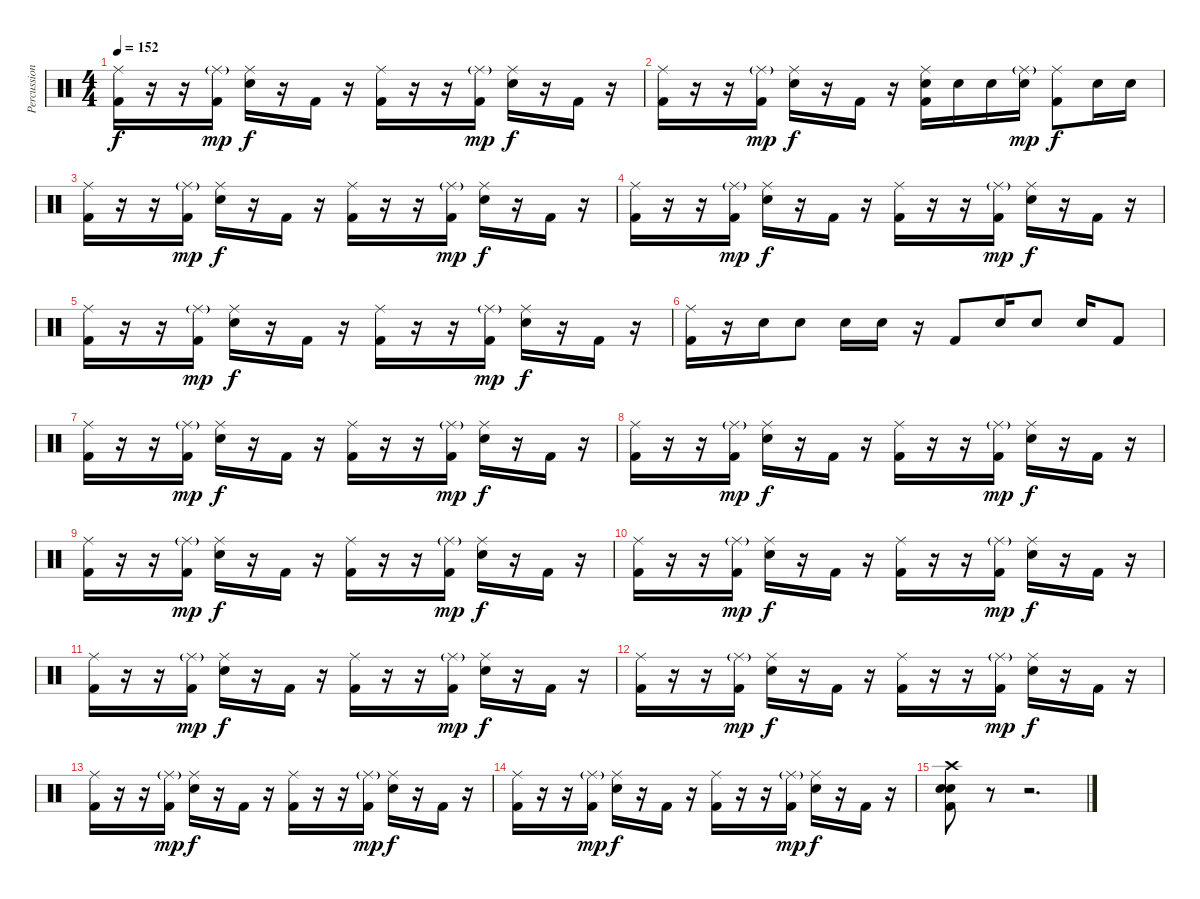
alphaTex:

\track ("Percussions" "Percussion") {instrument percussion}
\staff {score}
\articulation defaults
\ts (4 4)
\tempo 152
\clef neutral
\ks c
("Ride (middle)" "Kick (hit) 2").16{dy f} r.16 r.16 ("Ride (middle)"{g} "Kick (hit) 2").16{dy mp} ("Ride (middle)" "Snare (hit) 2").16{dy f} r.16 "Kick (hit) 2".16 r.16 ("Ride (middle)" "Kick (hit) 2").16 r.16 r.16 ("Ride (middle)"{g} "Kick (hit) 2").16{dy mp} ("Ride (middle)" "Snare (hit) 2").16{dy f} r.16 "Kick (hit) 2".16 r.16 |
("Ride (middle)" "Kick (hit) 2").16 r.16 r.16 ("Ride (middle)"{g} "Kick (hit) 2").16{dy mp} ("Ride (middle)" "Snare (hit) 2").16{dy f} r.16 "Kick (hit) 2".16 r.16 ("Ride (middle)" "Snare (hit) 2" "Kick (hit) 2").16 "Snare (hit) 2".16 "Snare (hit) 2".16 ("Ride (middle)"{g} "Snare (hit) 2").16{dy mp} ("Ride (middle)" "Kick (hit) 2").8{dy f} "Snare (hit) 2".16 "Snare (hit) 2".16 |
("Ride (middle)" "Kick (hit) 2").16 r.16 r.16 ("Ride (middle)"{g} "Kick (hit) 2").16{dy mp} ("Ride (middle)" "Snare (hit) 2").16{dy f} r.16 "Kick (hit) 2".16 r.16 ("Ride (middle)" "Kick (hit) 2").16 r.16 r.16 ("Ride (middle)"{g} "Kick (hit) 2").16{dy mp} ("Ride (middle)" "Snare (hit) 2").16{dy f} r.16 "Kick (hit) 2".16 r.16 |
("Ride (middle)" "Kick (hit) 2").16 r.16 r.16 ("Ride (middle)"{g} "Kick (hit) 2").16{dy mp} ("Ride (middle)" "Snare (hit) 2").16{dy f} r.16 "Kick (hit) 2".16 r.16 ("Ride (middle)" "Kick (hit) 2").16 r.16 r.16 ("Ride (middle)"{g} "Kick (hit) 2").16{dy mp} ("Ride (middle)" "Snare (hit) 2").16{dy f} r.16 "Kick (hit) 2".16 r.16 |
("Ride (middle)" "Kick (hit) 2").16 r.16 r.16 ("Ride (middle)"{g} "Kick (hit) 2").16{dy mp} ("Ride (middle)" "Snare (hit) 2").16{dy f} r.16 "Kick (hit) 2".16 r.16 ("Ride (middle)" "Kick (hit) 2").16 r.16 r.16 ("Ride (middle)"{g} "Kick (hit) 2").16{dy mp} ("Ride (middle)" "Snare (hit) 2").16{dy f} r.16 "Kick (hit) 2".16 r.16 |
("Ride (middle)" "Kick (hit) 2").16 r.16 "Snare (hit) 2".16 "Snare (hit) 2".8 "Snare (hit) 2".16 "Snare (hit) 2".16 r.16 "Kick (hit) 2".8 "Snare (hit) 2".16 "Snare (hit) 2".8 "Snare (hit) 2".16 "Kick (hit) 2".8 |
("Ride (middle)" "Kick (hit) 2").16 r.16 r.16 ("Ride (middle)"{g} "Kick (hit) 2").16{dy mp} ("Ride (middle)" "Snare (hit) 2").16{dy f} r.16 "Kick (hit) 2".16 r.16 ("Ride (middle)" "Kick (hit) 2").16 r.16 r.16 ("Ride (middle)"{g} "Kick (hit) 2").16{dy mp} ("Ride (middle)" "Snare (hit) 2").16{dy f} r.16 "Kick (hit) 2".16 r.16 |
("Ride (middle)" "Kick (hit) 2").16 r.16 r.16 ("Ride (middle)"{g} "Kick (hit) 2").16{dy mp} ("Ride (middle)" "Snare (hit) 2").16{dy f} r.16 "Kick (hit) 2".16 r.16 ("Ride (middle)" "Kick (hit) 2").16 r.16 r.16 ("Ride (middle)"{g} "Kick (hit) 2").16{dy mp} ("Ride (middle)" "Snare (hit) 2").16{dy f} r.16 "Kick (hit) 2".16 r.16 |
("Ride (middle)" "Kick (hit) 2").16 r.16 r.16 ("Ride (middle)"{g} "Kick (hit) 2").16{dy mp} ("Ride (middle)" "Snare (hit) 2").16{dy f} r.16 "Kick (hit) 2".16 r.16 ("Ride (middle)" "Kick (hit) 2").16 r.16 r.16 ("Ride (middle)"{g} "Kick (hit) 2").16{dy mp} ("Ride (middle)" "Snare (hit) 2").16{dy f} r.16 "Kick (hit) 2".16 r.16 |
("Ride (middle)" "Kick (hit) 2").16 r.16 r.16 ("Ride (middle)"{g} "Kick (hit) 2").16{dy mp} ("Ride (middle)" "Snare (hit) 2").16{dy f} r.16 "Kick (hit) 2".16 r.16 ("Ride (middle)" "Kick (hit) 2").16 r.16 r.16 ("Ride (middle)"{g} "Kick (hit) 2").16{dy mp} ("Ride (middle)" "Snare (hit) 2").16{dy f} r.16 "Kick (hit) 2".16 r.16 |
("Ride (middle)" "Kick (hit) 2").16 r.16 r.16 ("Ride (middle)"{g} "Kick (hit) 2").16{dy mp} ("Ride (middle)" "Snare (hit) 2").16{dy f} r.16 "Kick (hit) 2".16 r.16 ("Ride (middle)" "Kick (hit) 2").16 r.16 r.16 ("Ride (middle)"{g} "Kick (hit) 2").16{dy mp} ("Ride (middle)" "Snare (hit) 2").16{dy f} r.16 "Kick (hit) 2".16 r.16 |
("Ride (middle)" "Kick (hit) 2").16 r.16 r.16 ("Ride (middle)"{g} "Kick (hit) 2").16{dy mp} ("Ride (middle)" "Snare (hit) 2").16{dy f} r.16 "Kick (hit) 2".16 r.16 ("Ride (middle)" "Kick (hit) 2").16 r.16 r.16 ("Ride (middle)"{g} "Kick (hit) 2").16{dy mp} ("Ride (middle)" "Snare (hit) 2").16{dy f} r.16 "Kick (hit) 2".16 r.16 |
("Ride (middle)" "Kick (hit) 2").16 r.16 r.16 ("Ride (middle)"{g} "Kick (hit) 2").16{dy mp} ("Ride (middle)" "Snare (hit) 2").16{dy f} r.16 "Kick (hit) 2".16 r.16 ("Ride (middle)" "Kick (hit) 2").16 r.16 r.16 ("Ride (middle)"{g} "Kick (hit) 2").16{dy mp} ("Ride (middle)" "Snare (hit) 2").16{dy f} r.16 "Kick (hit) 2".16 r.16 |
("Ride (middle)" "Kick (hit) 2").16 r.16 r.16 ("Ride (middle)"{g} "Kick (hit) 2").16{dy mp} ("Ride (middle)" "Snare (hit) 2").16{dy f} r.16 "Kick (hit) 2".16 r.16 ("Ride (middle)" "Kick (hit) 2").16 r.16 r.16 ("Ride (middle)"{g} "Kick (hit) 2").16{dy mp} ("Ride (middle)" "Snare (hit) 2").16{dy f} r.16 "Kick (hit) 2".16 r.16 |
("Crash high (hit)" "Snare (hit) 2" "Snare (hit) 2" "Kick (hit) 2").8 r.8 r.2{d}
